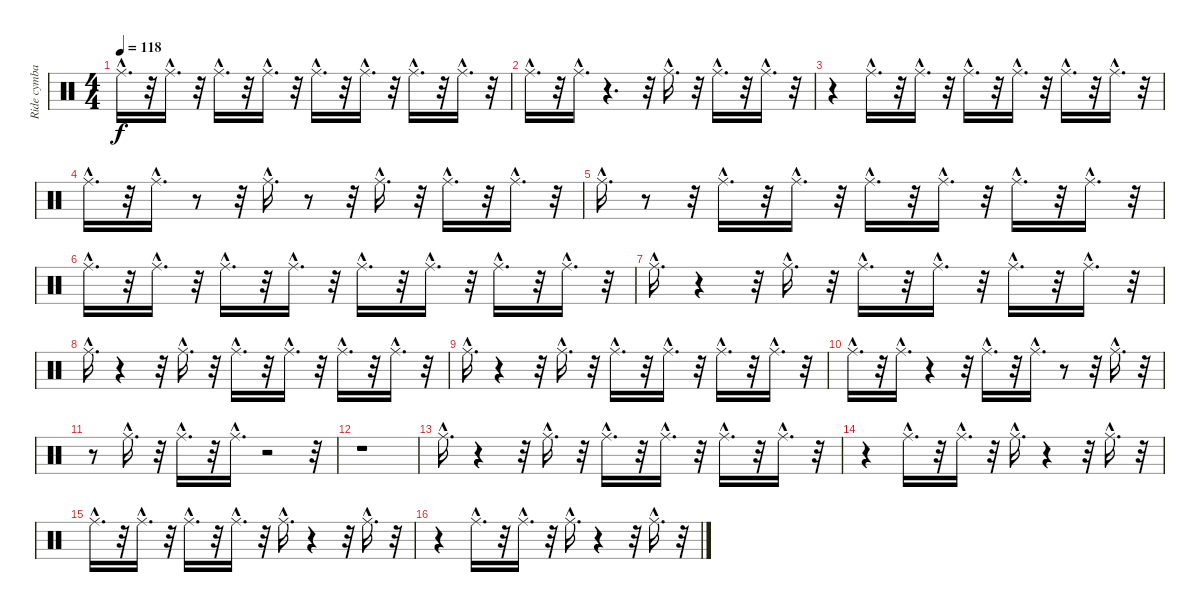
\track ("Ride cymbal         " "Ride cymba") {instrument percussion}
\staff {score}
\articulation defaults
\ts (4 4)
\tempo 118
\clef neutral
\ks c "Ride (middle)"{hac}.16{d dy f}
r.32 "Ride (middle)"{hac}.16{d} r.32 "Ride (middle)"{hac}.16{d} r.32 "Ride (middle)"{hac}.16{d} r.32 "Ride (middle)"{hac}.16{d} r.32 "Ride (middle)"{hac}.16{d} r.32 "Ride (middle)"{hac}.16{d} r.32 "Ride (middle)"{hac}.16{d} r.32 |
"Ride (middle)"{hac}.16{d} r.32 "Ride (middle)"{hac}.16{d} r.4{d} r.32 "Ride (middle)"{hac}.16{d} r.32 "Ride (middle)"{hac}.16{d} r.32 "Ride (middle)"{hac}.16{d} r.32 |
r.4 "Ride (middle)"{hac}.16{d} r.32 "Ride (middle)"{hac}.16{d} r.32 "Ride (middle)"{hac}.16{d} r.32 "Ride (middle)"{hac}.16{d} r.32 "Ride (middle)"{hac}.16{d} r.32 "Ride (middle)"{hac}.16{d} r.32 |
"Ride (middle)"{hac}.16{d} r.32 "Ride (middle)"{hac}.16{d} r.8 r.32 "Ride (middle)"{hac}.16{d} r.8 r.32 "Ride (middle)"{hac}.16{d} r.32 "Ride (middle)"{hac}.16{d} r.32 "Ride (middle)"{hac}.16{d} r.32 |
"Ride (middle)"{hac}.16{d} r.8 r.32 "Ride (middle)"{hac}.16{d} r.32 "Ride (middle)"{hac}.16{d} r.32 "Ride (middle)"{hac}.16{d} r.32 "Ride (middle)"{hac}.16{d} r.32 "Ride (middle)"{hac}.16{d} r.32 "Ride (middle)"{hac}.16{d} r.32 |
"Ride (middle)"{hac}.16{d} r.32 "Ride (middle)"{hac}.16{d} r.32 "Ride (middle)"{hac}.16{d} r.32 "Ride (middle)"{hac}.16{d} r.32 "Ride (middle)"{hac}.16{d} r.32 "Ride (middle)"{hac}.16{d} r.32 "Ride (middle)"{hac}.16{d} r.32 "Ride (middle)"{hac}.16{d} r.32 |
"Ride (middle)"{hac}.16{d} r.4 r.32 "Ride (middle)"{hac}.16{d} r.32 "Ride (middle)"{hac}.16{d} r.32 "Ride (middle)"{hac}.16{d} r.32 "Ride (middle)"{hac}.16{d} r.32 "Ride (middle)"{hac}.16{d} r.32 |
"Ride (middle)"{hac}.16{d} r.4 r.32 "Ride (middle)"{hac}.16{d} r.32 "Ride (middle)"{hac}.16{d} r.32 "Ride (middle)"{hac}.16{d} r.32 "Ride (middle)"{hac}.16{d} r.32 "Ride (middle)"{hac}.16{d} r.32 |
"Ride (middle)"{hac}.16{d} r.4 r.32 "Ride (middle)"{hac}.16{d} r.32 "Ride (middle)"{hac}.16{d} r.32 "Ride (middle)"{hac}.16{d} r.32 "Ride (middle)"{hac}.16{d} r.32 "Ride (middle)"{hac}.16{d} r.32 |
"Ride (middle)"{hac}.16{d} r.32 "Ride (middle)"{hac}.16{d} r.4 r.32 "Ride (middle)"{hac}.16{d} r.32 "Ride (middle)"{hac}.16{d} r.8 r.32 "Ride (middle)"{hac}.16{d} r.32 |
r.8 "Ride (middle)"{hac}.16{d} r.32 "Ride (middle)"{hac}.16{d} r.32 "Ride (middle)"{hac}.16{d} r.2 r.32 |
r.1 |
"Ride (middle)"{hac}.16{d} r.4 r.32 "Ride (middle)"{hac}.16{d} r.32 "Ride (middle)"{hac}.16{d} r.32 "Ride (middle)"{hac}.16{d} r.32 "Ride (middle)"{hac}.16{d} r.32 "Ride (middle)"{hac}.16{d} r.32 |
r.4 "Ride (middle)"{hac}.16{d} r.32 "Ride (middle)"{hac}.16{d} r.32 "Ride (middle)"{hac}.16{d} r.4 r.32 "Ride (middle)"{hac}.16{d} r.32 |
"Ride (middle)"{hac}.16{d} r.32 "Ride (middle)"{hac}.16{d} r.32 "Ride (middle)"{hac}.16{d} r.32 "Ride (middle)"{hac}.16{d} r.32 "Ride (middle)"{hac}.16{d} r.4 r.32 "Ride (middle)"{hac}.16{d} r.32 |
r.4 "Ride (middle)"{hac}.16{d} r.32 "Ride (middle)"{hac}.16{d} r.32 "Ride (middle)"{hac}.16{d} r.4 r.32 "Ride (middle)"{hac}.16{d} r.32
